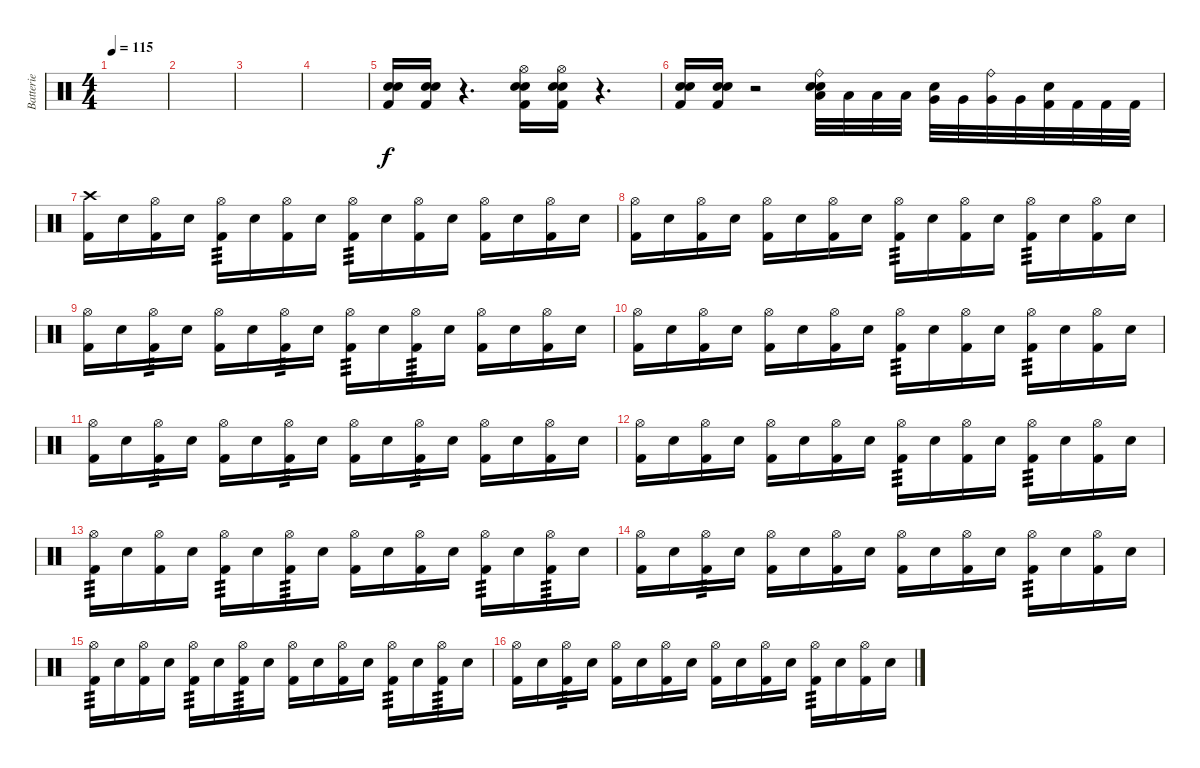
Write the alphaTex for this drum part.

\track ("Batterie" "Batterie") {instrument percussion}
\staff {score}
\articulation defaults
\ts (4 4)
\tempo 115
\clef neutral
\ks c
|
|
|
|
("Kick (hit) 2" "Electric Snare (hit)" "Electric Snare (hit)").16 ("Kick (hit) 2" "Electric Snare (hit)" "Electric Snare (hit)").16 r.4{d} ("Hi-Hat (open)" "Kick (hit) 2" "Electric Snare (hit)" "Electric Snare (hit)").16 ("Hi-Hat (open)" "Kick (hit) 2" "Electric Snare (hit)" "Electric Snare (hit)").16 r.4{d} |
("Kick (hit) 2" "Electric Snare (hit)" "Electric Snare (hit)").16 ("Kick (hit) 2" "Electric Snare (hit)" "Electric Snare (hit)").16 r.2 ("Ride (bell)" "Low Tom (hit)" "Electric Snare (hit)" "Electric Snare (hit)").32 "Low Tom (hit)".32 "Low Tom (hit)".32 "Low Tom (hit)".32 ("Very Low Tom (hit)" "Electric Snare (hit)").32 "Very Low Tom (hit)".32 ("Ride (bell)" "Very Low Tom (hit)").32 "Very Low Tom (hit)".32 ("Kick (hit) 2" "Electric Snare (hit)").32 "Kick (hit) 2".32 "Kick (hit) 2".32 "Kick (hit) 2".32 |
("Crash high (hit)" "Kick (hit) 2").16 "Electric Snare (hit)".16 ("Hi-Hat (open)" "Kick (hit) 2").16 "Electric Snare (hit)".16 ("Hi-Hat (open)" "Kick (hit) 2").16{tp 3} "Electric Snare (hit)".16 ("Hi-Hat (open)" "Kick (hit) 2").16 "Electric Snare (hit)".16 ("Hi-Hat (open)" "Kick (hit) 2").16{tp 3} "Electric Snare (hit)".16 ("Hi-Hat (open)" "Kick (hit) 2").16 "Electric Snare (hit)".16 ("Hi-Hat (open)" "Kick (hit) 2").16 "Electric Snare (hit)".16 ("Hi-Hat (open)" "Kick (hit) 2").16 "Electric Snare (hit)".16 |
("Hi-Hat (open)" "Kick (hit) 2").16 "Electric Snare (hit)".16 ("Hi-Hat (open)" "Kick (hit) 2").16 "Electric Snare (hit)".16 ("Hi-Hat (open)" "Kick (hit) 2").16 "Electric Snare (hit)".16 ("Hi-Hat (open)" "Kick (hit) 2").16 "Electric Snare (hit)".16 ("Hi-Hat (open)" "Kick (hit) 2").16{tp 3} "Electric Snare (hit)".16 ("Hi-Hat (open)" "Kick (hit) 2").16 "Electric Snare (hit)".16 ("Hi-Hat (open)" "Kick (hit) 2").16{tp 3} "Electric Snare (hit)".16 ("Hi-Hat (open)" "Kick (hit) 2").16 "Electric Snare (hit)".16 |
("Hi-Hat (open)" "Kick (hit) 2").16 "Electric Snare (hit)".16 ("Hi-Hat (open)" "Kick (hit) 2").16{tp 3} "Electric Snare (hit)".16 ("Hi-Hat (open)" "Kick (hit) 2").16 "Electric Snare (hit)".16 ("Hi-Hat (open)" "Kick (hit) 2").16{tp 3} "Electric Snare (hit)".16 ("Hi-Hat (open)" "Kick (hit) 2").16{tp 3} "Electric Snare (hit)".16 ("Hi-Hat (open)" "Kick (hit) 2").16{tp 3} "Electric Snare (hit)".16 ("Hi-Hat (open)" "Kick (hit) 2").16 "Electric Snare (hit)".16 ("Hi-Hat (open)" "Kick (hit) 2").16 "Electric Snare (hit)".16 |
("Hi-Hat (open)" "Kick (hit) 2").16 "Electric Snare (hit)".16 ("Hi-Hat (open)" "Kick (hit) 2").16 "Electric Snare (hit)".16 ("Hi-Hat (open)" "Kick (hit) 2").16 "Electric Snare (hit)".16 ("Hi-Hat (open)" "Kick (hit) 2").16 "Electric Snare (hit)".16 ("Hi-Hat (open)" "Kick (hit) 2").16{tp 3} "Electric Snare (hit)".16 ("Hi-Hat (open)" "Kick (hit) 2").16 "Electric Snare (hit)".16 ("Hi-Hat (open)" "Kick (hit) 2").16{tp 3} "Electric Snare (hit)".16 ("Hi-Hat (open)" "Kick (hit) 2").16 "Electric Snare (hit)".16 |
("Hi-Hat (open)" "Kick (hit) 2").16 "Electric Snare (hit)".16 ("Hi-Hat (open)" "Kick (hit) 2").16{tp 3} "Electric Snare (hit)".16 ("Hi-Hat (open)" "Kick (hit) 2").16 "Electric Snare (hit)".16 ("Hi-Hat (open)" "Kick (hit) 2").16{tp 3} "Electric Snare (hit)".16 ("Hi-Hat (open)" "Kick (hit) 2").16 "Electric Snare (hit)".16 ("Hi-Hat (open)" "Kick (hit) 2").16{tp 3} "Electric Snare (hit)".16 ("Hi-Hat (open)" "Kick (hit) 2").16 "Electric Snare (hit)".16 ("Hi-Hat (open)" "Kick (hit) 2").16 "Electric Snare (hit)".16 |
("Hi-Hat (open)" "Kick (hit) 2").16 "Electric Snare (hit)".16 ("Hi-Hat (open)" "Kick (hit) 2").16 "Electric Snare (hit)".16 ("Hi-Hat (open)" "Kick (hit) 2").16 "Electric Snare (hit)".16 ("Hi-Hat (open)" "Kick (hit) 2").16 "Electric Snare (hit)".16 ("Hi-Hat (open)" "Kick (hit) 2").16{tp 3} "Electric Snare (hit)".16 ("Hi-Hat (open)" "Kick (hit) 2").16 "Electric Snare (hit)".16 ("Hi-Hat (open)" "Kick (hit) 2").16{tp 3} "Electric Snare (hit)".16 ("Hi-Hat (open)" "Kick (hit) 2").16 "Electric Snare (hit)".16 |
("Hi-Hat (open)" "Kick (hit) 2").16{tp 3} "Electric Snare (hit)".16 ("Hi-Hat (open)" "Kick (hit) 2").16 "Electric Snare (hit)".16 ("Hi-Hat (open)" "Kick (hit) 2").16{tp 3} "Electric Snare (hit)".16 ("Hi-Hat (open)" "Kick (hit) 2").16{tp 3} "Electric Snare (hit)".16 ("Hi-Hat (open)" "Kick (hit) 2").16 "Electric Snare (hit)".16 ("Hi-Hat (open)" "Kick (hit) 2").16 "Electric Snare (hit)".16 ("Hi-Hat (open)" "Kick (hit) 2").16{tp 3} "Electric Snare (hit)".16 ("Hi-Hat (open)" "Kick (hit) 2").16{tp 3} "Electric Snare (hit)".16 |
("Hi-Hat (open)" "Kick (hit) 2").16 "Electric Snare (hit)".16 ("Hi-Hat (open)" "Kick (hit) 2").16{tp 3} "Electric Snare (hit)".16 ("Hi-Hat (open)" "Kick (hit) 2").16 "Electric Snare (hit)".16 ("Hi-Hat (open)" "Kick (hit) 2").16 "Electric Snare (hit)".16 ("Hi-Hat (open)" "Kick (hit) 2").16 "Electric Snare (hit)".16 ("Hi-Hat (open)" "Kick (hit) 2").16 "Electric Snare (hit)".16 ("Hi-Hat (open)" "Kick (hit) 2").16{tp 3} "Electric Snare (hit)".16 ("Hi-Hat (open)" "Kick (hit) 2").16 "Electric Snare (hit)".16 |
("Hi-Hat (open)" "Kick (hit) 2").16{tp 3} "Electric Snare (hit)".16 ("Hi-Hat (open)" "Kick (hit) 2").16 "Electric Snare (hit)".16 ("Hi-Hat (open)" "Kick (hit) 2").16{tp 3} "Electric Snare (hit)".16 ("Hi-Hat (open)" "Kick (hit) 2").16{tp 3} "Electric Snare (hit)".16 ("Hi-Hat (open)" "Kick (hit) 2").16 "Electric Snare (hit)".16 ("Hi-Hat (open)" "Kick (hit) 2").16 "Electric Snare (hit)".16 ("Hi-Hat (open)" "Kick (hit) 2").16{tp 3} "Electric Snare (hit)".16 ("Hi-Hat (open)" "Kick (hit) 2").16{tp 3} "Electric Snare (hit)".16 |
("Hi-Hat (open)" "Kick (hit) 2").16 "Electric Snare (hit)".16 ("Hi-Hat (open)" "Kick (hit) 2").16{tp 3} "Electric Snare (hit)".16 ("Hi-Hat (open)" "Kick (hit) 2").16 "Electric Snare (hit)".16 ("Hi-Hat (open)" "Kick (hit) 2").16 "Electric Snare (hit)".16 ("Hi-Hat (open)" "Kick (hit) 2").16 "Electric Snare (hit)".16 ("Hi-Hat (open)" "Kick (hit) 2").16 "Electric Snare (hit)".16 ("Hi-Hat (open)" "Kick (hit) 2").16{tp 3} "Electric Snare (hit)".16 ("Hi-Hat (open)" "Kick (hit) 2").16 "Electric Snare (hit)".16
